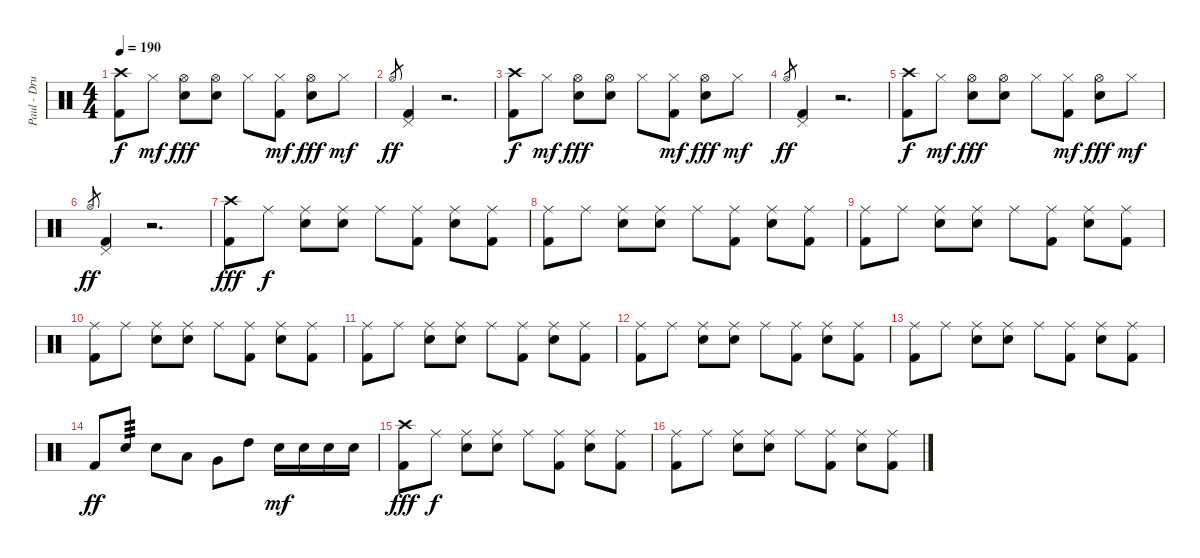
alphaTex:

\track ("Paul - Drums" "Paul - Dru") {instrument percussion}
\staff {score}
\articulation defaults
\ts (4 4)
\tempo 190
\clef neutral
\ks c
("Crash high (hit)" "Kick (hit) 2").8{dy f} "Hi-Hat (closed)".8{dy mf} ("Hi-Hat (open)" "Electric Snare (hit)").8{dy fff} ("Hi-Hat (open)" "Electric Snare (hit)").8 "Hi-Hat (closed)".8 ("Hi-Hat (closed)" "Kick (hit) 2").8{dy mf} ("Hi-Hat (open)" "Electric Snare (hit)").8{dy fff} "Hi-Hat (closed)".8{dy mf} |
"Hi-Hat (open)".8{gr dy ff} ("Pedal Hi-Hat (hit)" "Kick (hit) 2").4 r.2{d} |
("Crash high (hit)" "Kick (hit) 2").8{dy f} "Hi-Hat (closed)".8{dy mf} ("Hi-Hat (open)" "Electric Snare (hit)").8{dy fff} ("Hi-Hat (open)" "Electric Snare (hit)").8 "Hi-Hat (closed)".8 ("Hi-Hat (closed)" "Kick (hit) 2").8{dy mf} ("Hi-Hat (open)" "Electric Snare (hit)").8{dy fff} "Hi-Hat (closed)".8{dy mf} |
"Hi-Hat (open)".8{gr dy ff} ("Pedal Hi-Hat (hit)" "Kick (hit) 2").4 r.2{d} |
("Crash high (hit)" "Kick (hit) 2").8{dy f} "Hi-Hat (closed)".8{dy mf} ("Hi-Hat (open)" "Electric Snare (hit)").8{dy fff} ("Hi-Hat (open)" "Electric Snare (hit)").8 "Hi-Hat (closed)".8 ("Hi-Hat (closed)" "Kick (hit) 2").8{dy mf} ("Hi-Hat (open)" "Electric Snare (hit)").8{dy fff} "Hi-Hat (closed)".8{dy mf} |
"Hi-Hat (open)".8{gr dy ff} ("Pedal Hi-Hat (hit)" "Kick (hit) 2").4 r.2{d} |
("Crash high (hit)" "Kick (hit) 2").8{dy fff} "Ride (middle)".8{dy f} ("Ride (middle)" "Electric Snare (hit)").8 ("Ride (middle)" "Electric Snare (hit)").8 "Ride (middle)".8 ("Ride (middle)" "Kick (hit) 2").8 ("Ride (middle)" "Electric Snare (hit)").8 ("Ride (middle)" "Kick (hit) 2").8 |
("Ride (middle)" "Kick (hit) 2").8 "Ride (middle)".8 ("Ride (middle)" "Electric Snare (hit)").8 ("Ride (middle)" "Electric Snare (hit)").8 "Ride (middle)".8 ("Ride (middle)" "Kick (hit) 2").8 ("Ride (middle)" "Electric Snare (hit)").8 ("Ride (middle)" "Kick (hit) 2").8 |
("Ride (middle)" "Kick (hit) 2").8 "Ride (middle)".8 ("Ride (middle)" "Electric Snare (hit)").8 ("Ride (middle)" "Electric Snare (hit)").8 "Ride (middle)".8 ("Ride (middle)" "Kick (hit) 2").8 ("Ride (middle)" "Electric Snare (hit)").8 ("Ride (middle)" "Kick (hit) 2").8 |
("Ride (middle)" "Kick (hit) 2").8 "Ride (middle)".8 ("Ride (middle)" "Electric Snare (hit)").8 ("Ride (middle)" "Electric Snare (hit)").8 "Ride (middle)".8 ("Ride (middle)" "Kick (hit) 2").8 ("Ride (middle)" "Electric Snare (hit)").8 ("Ride (middle)" "Kick (hit) 2").8 |
("Ride (middle)" "Kick (hit) 2").8 "Ride (middle)".8 ("Ride (middle)" "Electric Snare (hit)").8 ("Ride (middle)" "Electric Snare (hit)").8 "Ride (middle)".8 ("Ride (middle)" "Kick (hit) 2").8 ("Ride (middle)" "Electric Snare (hit)").8 ("Ride (middle)" "Kick (hit) 2").8 |
("Ride (middle)" "Kick (hit) 2").8 "Ride (middle)".8 ("Ride (middle)" "Electric Snare (hit)").8 ("Ride (middle)" "Electric Snare (hit)").8 "Ride (middle)".8 ("Ride (middle)" "Kick (hit) 2").8 ("Ride (middle)" "Electric Snare (hit)").8 ("Ride (middle)" "Kick (hit) 2").8 |
("Ride (middle)" "Kick (hit) 2").8 "Ride (middle)".8 ("Ride (middle)" "Electric Snare (hit)").8 ("Ride (middle)" "Electric Snare (hit)").8 "Ride (middle)".8 ("Ride (middle)" "Kick (hit) 2").8 ("Ride (middle)" "Electric Snare (hit)").8 ("Ride (middle)" "Kick (hit) 2").8 |
"Kick (hit) 2".8{dy ff} "Electric Snare (hit)".8{tp 3} "Electric Snare (hit)".8 "Low Tom (hit)".8 "Very Low Tom (hit)".8 "High Tom (hit)".8 "Electric Snare (hit)".16{dy mf} "Electric Snare (hit)".16 "Electric Snare (hit)".16 "Electric Snare (hit)".16 |
("Crash high (hit)" "Kick (hit) 2").8{dy fff} "Ride (middle)".8{dy f} ("Ride (middle)" "Electric Snare (hit)").8 ("Ride (middle)" "Electric Snare (hit)").8 "Ride (middle)".8 ("Ride (middle)" "Kick (hit) 2").8 ("Ride (middle)" "Electric Snare (hit)").8 ("Ride (middle)" "Kick (hit) 2").8 |
("Ride (middle)" "Kick (hit) 2").8 "Ride (middle)".8 ("Ride (middle)" "Electric Snare (hit)").8 ("Ride (middle)" "Electric Snare (hit)").8 "Ride (middle)".8 ("Ride (middle)" "Kick (hit) 2").8 ("Ride (middle)" "Electric Snare (hit)").8 ("Ride (middle)" "Kick (hit) 2").8
